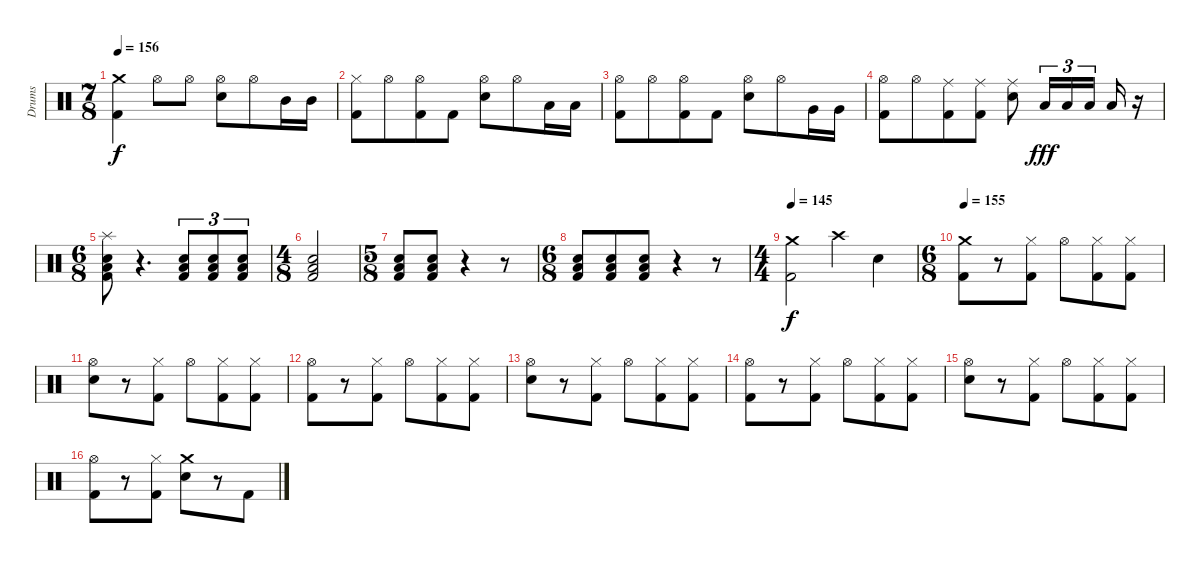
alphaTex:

\track ("Drums" "Drums") {instrument percussion}
\staff {score}
\articulation defaults
\ts (7 8)
\tempo 156
\clef neutral
\ks c
("Crash medium (hit)" "Kick (hit) 2").4{dy f} "Hi-Hat (open)".8 "Hi-Hat (open)".8 ("Hi-Hat (open)" "Electric Snare (hit)").8 "Hi-Hat (open)".8 "Mid Tom (hit)".16 "Mid Tom (hit)".16 |
("Hi-Hat (closed)" "Kick (hit) 2").8 "Hi-Hat (open)".8 ("Hi-Hat (open)" "Kick (hit) 2").8 "Kick (hit) 2".8 ("Hi-Hat (open)" "Electric Snare (hit)").8 "Hi-Hat (open)".8 "Low Tom (hit)".16 "Low Tom (hit)".16 |
("Hi-Hat (open)" "Kick (hit) 2").8 "Hi-Hat (open)".8 ("Hi-Hat (open)" "Kick (hit) 2").8 "Kick (hit) 2".8 ("Hi-Hat (open)" "Electric Snare (hit)").8 "Hi-Hat (open)".8 "Very Low Tom (hit)".16 "Very Low Tom (hit)".16 |
("Hi-Hat (open)" "Kick (hit) 2").8 "Hi-Hat (open)".8 ("Ride (middle)" "Kick (hit) 2").8 ("Ride (middle)" "Kick (hit) 2").8 ("Ride (middle)" "Electric Snare (hit)").8 "Low Floor Tom (hit)".16{tu (3 2) dy fff} "Low Floor Tom (hit)".16{tu (3 2)} "Low Floor Tom (hit)".16{tu (3 2)} "Low Floor Tom (hit)".16 r.16 |
\ts (6 8)
("Splash (hit)" "Electric Snare (hit)" "Low Floor Tom (hit)" "Kick (hit) 2").8 r.4{d} ("Electric Snare (hit)" "Low Floor Tom (hit)" "Kick (hit) 2").8{tu (3 2)} ("Electric Snare (hit)" "Low Floor Tom (hit)" "Kick (hit) 2").8{tu (3 2)} ("Electric Snare (hit)" "Low Floor Tom (hit)" "Kick (hit) 2").8{tu (3 2)} |
\ts (4 8)
("Electric Snare (hit)" "Low Floor Tom (hit)" "Kick (hit) 2").2 |
\ts (5 8)
("Electric Snare (hit)" "Low Floor Tom (hit)" "Kick (hit) 2").8 ("Electric Snare (hit)" "Low Floor Tom (hit)" "Kick (hit) 2").8 r.4 r.8 |
\ts (6 8)
("Electric Snare (hit)" "Low Floor Tom (hit)" "Kick (hit) 2").8 ("Electric Snare (hit)" "Low Floor Tom (hit)" "Kick (hit) 2").8 ("Electric Snare (hit)" "Low Floor Tom (hit)" "Kick (hit) 2").8 r.4 r.8 |
\ts (4 4)
\tempo 145
("Crash medium (hit)" "Kick (hit) 2").2{dy f} "Crash high (hit)".4 "Electric Snare (hit)".4 |
\ts (6 8)
\tempo 155
("Crash medium (hit)" "Kick (hit) 2").8 r.8 ("Hi-Hat (closed)" "Kick (hit) 2").8 "Hi-Hat (open)".8 ("Hi-Hat (closed)" "Kick (hit) 2").8 ("Hi-Hat (closed)" "Kick (hit) 2").8 |
("Hi-Hat (open)" "Electric Snare (hit)").8 r.8 ("Hi-Hat (closed)" "Kick (hit) 2").8 "Hi-Hat (open)".8 ("Hi-Hat (closed)" "Kick (hit) 2").8 ("Hi-Hat (closed)" "Kick (hit) 2").8 |
("Hi-Hat (open)" "Kick (hit) 2").8 r.8 ("Hi-Hat (closed)" "Kick (hit) 2").8 "Hi-Hat (open)".8 ("Hi-Hat (closed)" "Kick (hit) 2").8 ("Hi-Hat (closed)" "Kick (hit) 2").8 |
("Hi-Hat (open)" "Electric Snare (hit)").8 r.8 ("Hi-Hat (closed)" "Kick (hit) 2").8 "Hi-Hat (open)".8 ("Hi-Hat (closed)" "Kick (hit) 2").8 ("Hi-Hat (closed)" "Kick (hit) 2").8 |
("Hi-Hat (open)" "Kick (hit) 2").8 r.8 ("Hi-Hat (closed)" "Kick (hit) 2").8 "Hi-Hat (open)".8 ("Hi-Hat (closed)" "Kick (hit) 2").8 ("Hi-Hat (closed)" "Kick (hit) 2").8 |
("Hi-Hat (open)" "Electric Snare (hit)").8 r.8 ("Hi-Hat (closed)" "Kick (hit) 2").8 "Hi-Hat (open)".8 ("Hi-Hat (closed)" "Kick (hit) 2").8 ("Hi-Hat (closed)" "Kick (hit) 2").8 |
("Hi-Hat (open)" "Kick (hit) 2").8 r.8 ("Hi-Hat (closed)" "Kick (hit) 2").8 ("Crash medium (hit)" "Electric Snare (hit)").8 r.8 "Kick (hit) 2".8
